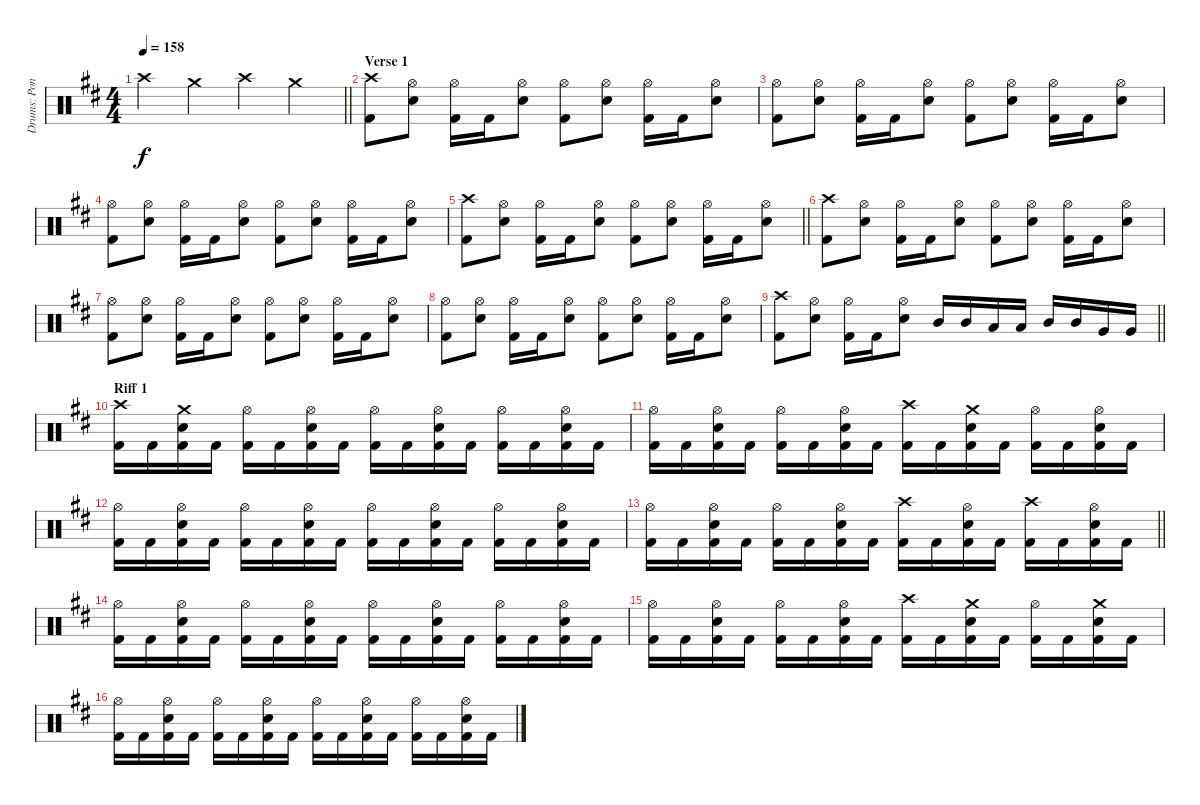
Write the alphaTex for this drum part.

\track ("Drums: Pontus Jansson" "Drums: Pon") {instrument percussion}
\staff {score}
\articulation defaults
\ts (4 4)
\tempo 158
\clef neutral
\barLineRight lightlight
\ks bminor "Crash high (hit)".4{dy f} "Crash medium (hit)".4 "Crash high (hit)".4 "Crash medium (hit)".4
|
\section ("" "Verse 1")
("Crash high (hit)" "Kick (hit) 2").8 ("Hi-Hat (open)" "Electric Snare (hit)").8 ("Hi-Hat (open)" "Kick (hit) 2").16 "Kick (hit) 2".16 ("Hi-Hat (open)" "Electric Snare (hit)").8 ("Hi-Hat (open)" "Kick (hit) 2").8 ("Hi-Hat (open)" "Electric Snare (hit)").8 ("Hi-Hat (open)" "Kick (hit) 2").16 "Kick (hit) 2".16 ("Hi-Hat (open)" "Electric Snare (hit)").8 |
("Hi-Hat (open)" "Kick (hit) 2").8 ("Hi-Hat (open)" "Electric Snare (hit)").8 ("Hi-Hat (open)" "Kick (hit) 2").16 "Kick (hit) 2".16 ("Hi-Hat (open)" "Electric Snare (hit)").8 ("Hi-Hat (open)" "Kick (hit) 2").8 ("Hi-Hat (open)" "Electric Snare (hit)").8 ("Hi-Hat (open)" "Kick (hit) 2").16 "Kick (hit) 2".16 ("Hi-Hat (open)" "Electric Snare (hit)").8 |
("Hi-Hat (open)" "Kick (hit) 2").8 ("Hi-Hat (open)" "Electric Snare (hit)").8 ("Hi-Hat (open)" "Kick (hit) 2").16 "Kick (hit) 2".16 ("Hi-Hat (open)" "Electric Snare (hit)").8 ("Hi-Hat (open)" "Kick (hit) 2").8 ("Hi-Hat (open)" "Electric Snare (hit)").8 ("Hi-Hat (open)" "Kick (hit) 2").16 "Kick (hit) 2".16 ("Hi-Hat (open)" "Electric Snare (hit)").8 |
\barLineRight lightlight
("Crash high (hit)" "Kick (hit) 2").8 ("Hi-Hat (open)" "Electric Snare (hit)").8 ("Hi-Hat (open)" "Kick (hit) 2").16 "Kick (hit) 2".16 ("Hi-Hat (open)" "Electric Snare (hit)").8 ("Hi-Hat (open)" "Kick (hit) 2").8 ("Hi-Hat (open)" "Electric Snare (hit)").8 ("Hi-Hat (open)" "Kick (hit) 2").16 "Kick (hit) 2".16 ("Hi-Hat (open)" "Electric Snare (hit)").8 |
("Crash high (hit)" "Kick (hit) 2").8 ("Hi-Hat (open)" "Electric Snare (hit)").8 ("Hi-Hat (open)" "Kick (hit) 2").16 "Kick (hit) 2".16 ("Hi-Hat (open)" "Electric Snare (hit)").8 ("Hi-Hat (open)" "Kick (hit) 2").8 ("Hi-Hat (open)" "Electric Snare (hit)").8 ("Hi-Hat (open)" "Kick (hit) 2").16 "Kick (hit) 2".16 ("Hi-Hat (open)" "Electric Snare (hit)").8 |
("Hi-Hat (open)" "Kick (hit) 2").8 ("Hi-Hat (open)" "Electric Snare (hit)").8 ("Hi-Hat (open)" "Kick (hit) 2").16 "Kick (hit) 2".16 ("Hi-Hat (open)" "Electric Snare (hit)").8 ("Hi-Hat (open)" "Kick (hit) 2").8 ("Hi-Hat (open)" "Electric Snare (hit)").8 ("Hi-Hat (open)" "Kick (hit) 2").16 "Kick (hit) 2".16 ("Hi-Hat (open)" "Electric Snare (hit)").8 |
("Hi-Hat (open)" "Kick (hit) 2").8 ("Hi-Hat (open)" "Electric Snare (hit)").8 ("Hi-Hat (open)" "Kick (hit) 2").16 "Kick (hit) 2".16 ("Hi-Hat (open)" "Electric Snare (hit)").8 ("Hi-Hat (open)" "Kick (hit) 2").8 ("Hi-Hat (open)" "Electric Snare (hit)").8 ("Hi-Hat (open)" "Kick (hit) 2").16 "Kick (hit) 2".16 ("Hi-Hat (open)" "Electric Snare (hit)").8 |
\barLineRight lightlight
("Crash high (hit)" "Kick (hit) 2").8 ("Hi-Hat (open)" "Electric Snare (hit)").8 ("Hi-Hat (open)" "Kick (hit) 2").16 "Kick (hit) 2".16 ("Hi-Hat (open)" "Electric Snare (hit)").8 "Mid Tom (hit)".16 "Mid Tom (hit)".16 "Low Tom (hit)".16 "Low Tom (hit)".16 "Mid Tom (hit)".16 "Mid Tom (hit)".16 "Very Low Tom (hit)".16 "Very Low Tom (hit)".16 |
\section ("" "Riff 1")
("Crash high (hit)" "Kick (hit) 2").16 "Kick (hit) 2".16 ("Crash medium (hit)" "Electric Snare (hit)" "Kick (hit) 2").16 "Kick (hit) 2".16 ("Hi-Hat (open)" "Kick (hit) 2").16 "Kick (hit) 2".16 ("Hi-Hat (open)" "Electric Snare (hit)" "Kick (hit) 2").16 "Kick (hit) 2".16 ("Hi-Hat (open)" "Kick (hit) 2").16 "Kick (hit) 2".16 ("Hi-Hat (open)" "Electric Snare (hit)" "Kick (hit) 2").16 "Kick (hit) 2".16 ("Hi-Hat (open)" "Kick (hit) 2").16 "Kick (hit) 2".16 ("Hi-Hat (open)" "Electric Snare (hit)" "Kick (hit) 2").16 "Kick (hit) 2".16 |
("Hi-Hat (open)" "Kick (hit) 2").16 "Kick (hit) 2".16 ("Hi-Hat (open)" "Electric Snare (hit)" "Kick (hit) 2").16 "Kick (hit) 2".16 ("Hi-Hat (open)" "Kick (hit) 2").16 "Kick (hit) 2".16 ("Hi-Hat (open)" "Electric Snare (hit)" "Kick (hit) 2").16 "Kick (hit) 2".16 ("Crash high (hit)" "Kick (hit) 2").16 "Kick (hit) 2".16 ("Crash medium (hit)" "Electric Snare (hit)" "Kick (hit) 2").16 "Kick (hit) 2".16 ("Hi-Hat (open)" "Kick (hit) 2").16 "Kick (hit) 2".16 ("Hi-Hat (open)" "Electric Snare (hit)" "Kick (hit) 2").16 "Kick (hit) 2".16 |
("Hi-Hat (open)" "Kick (hit) 2").16 "Kick (hit) 2".16 ("Hi-Hat (open)" "Electric Snare (hit)" "Kick (hit) 2").16 "Kick (hit) 2".16 ("Hi-Hat (open)" "Kick (hit) 2").16 "Kick (hit) 2".16 ("Hi-Hat (open)" "Electric Snare (hit)" "Kick (hit) 2").16 "Kick (hit) 2".16 ("Hi-Hat (open)" "Kick (hit) 2").16 "Kick (hit) 2".16 ("Hi-Hat (open)" "Electric Snare (hit)" "Kick (hit) 2").16 "Kick (hit) 2".16 ("Hi-Hat (open)" "Kick (hit) 2").16 "Kick (hit) 2".16 ("Hi-Hat (open)" "Electric Snare (hit)" "Kick (hit) 2").16 "Kick (hit) 2".16 |
\barLineRight lightlight
("Hi-Hat (open)" "Kick (hit) 2").16 "Kick (hit) 2".16 ("Hi-Hat (open)" "Electric Snare (hit)" "Kick (hit) 2").16 "Kick (hit) 2".16 ("Hi-Hat (open)" "Kick (hit) 2").16 "Kick (hit) 2".16 ("Hi-Hat (open)" "Electric Snare (hit)" "Kick (hit) 2").16 "Kick (hit) 2".16 ("Crash high (hit)" "Kick (hit) 2").16 "Kick (hit) 2".16 ("Hi-Hat (open)" "Electric Snare (hit)" "Kick (hit) 2").16 "Kick (hit) 2".16 ("Crash high (hit)" "Kick (hit) 2").16 "Kick (hit) 2".16 ("Hi-Hat (open)" "Electric Snare (hit)" "Kick (hit) 2").16 "Kick (hit) 2".16 |
("Hi-Hat (open)" "Kick (hit) 2").16 "Kick (hit) 2".16 ("Hi-Hat (open)" "Electric Snare (hit)" "Kick (hit) 2").16 "Kick (hit) 2".16 ("Hi-Hat (open)" "Kick (hit) 2").16 "Kick (hit) 2".16 ("Hi-Hat (open)" "Electric Snare (hit)" "Kick (hit) 2").16 "Kick (hit) 2".16 ("Hi-Hat (open)" "Kick (hit) 2").16 "Kick (hit) 2".16 ("Hi-Hat (open)" "Electric Snare (hit)" "Kick (hit) 2").16 "Kick (hit) 2".16 ("Hi-Hat (open)" "Kick (hit) 2").16 "Kick (hit) 2".16 ("Hi-Hat (open)" "Electric Snare (hit)" "Kick (hit) 2").16 "Kick (hit) 2".16 |
("Hi-Hat (open)" "Kick (hit) 2").16 "Kick (hit) 2".16 ("Hi-Hat (open)" "Electric Snare (hit)" "Kick (hit) 2").16 "Kick (hit) 2".16 ("Hi-Hat (open)" "Kick (hit) 2").16 "Kick (hit) 2".16 ("Hi-Hat (open)" "Electric Snare (hit)" "Kick (hit) 2").16 "Kick (hit) 2".16 ("Crash high (hit)" "Kick (hit) 2").16 "Kick (hit) 2".16 ("Crash medium (hit)" "Electric Snare (hit)" "Kick (hit) 2").16 "Kick (hit) 2".16 ("Hi-Hat (open)" "Kick (hit) 2").16 "Kick (hit) 2".16 ("Crash medium (hit)" "Electric Snare (hit)" "Kick (hit) 2").16 "Kick (hit) 2".16 |
("Hi-Hat (open)" "Kick (hit) 2").16 "Kick (hit) 2".16 ("Hi-Hat (open)" "Electric Snare (hit)" "Kick (hit) 2").16 "Kick (hit) 2".16 ("Hi-Hat (open)" "Kick (hit) 2").16 "Kick (hit) 2".16 ("Hi-Hat (open)" "Electric Snare (hit)" "Kick (hit) 2").16 "Kick (hit) 2".16 ("Hi-Hat (open)" "Kick (hit) 2").16 "Kick (hit) 2".16 ("Hi-Hat (open)" "Electric Snare (hit)" "Kick (hit) 2").16 "Kick (hit) 2".16 ("Hi-Hat (open)" "Kick (hit) 2").16 "Kick (hit) 2".16 ("Hi-Hat (open)" "Electric Snare (hit)" "Kick (hit) 2").16 "Kick (hit) 2".16
